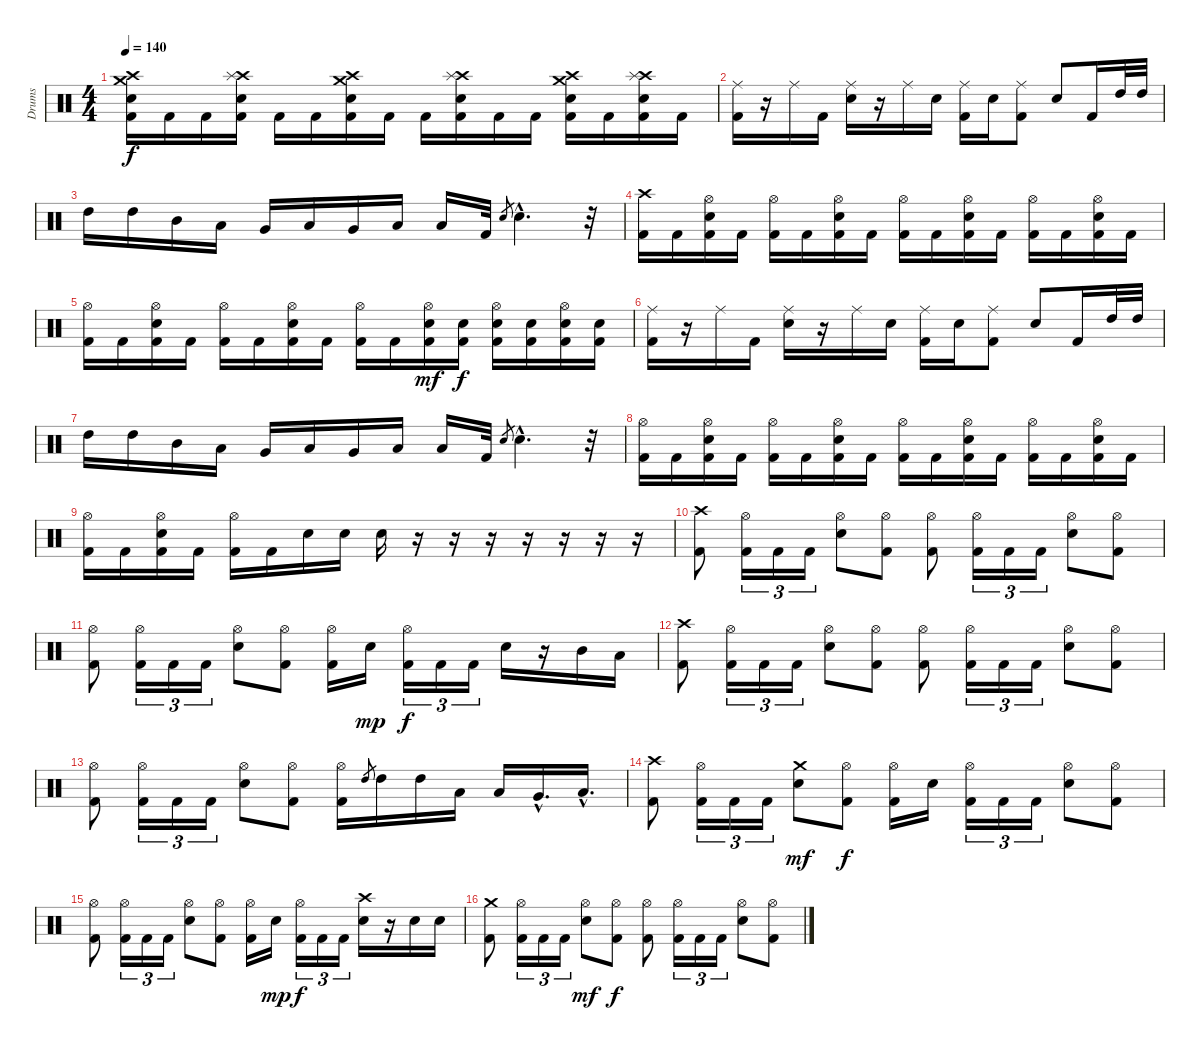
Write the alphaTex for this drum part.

\track ("Drums" "Drums") {instrument percussion}
\staff {score}
\articulation defaults
\ts (4 4)
\tempo 140
\clef neutral
\ks c
("Crash high (hit)" "Crash medium (hit)" "Electric Snare (hit)" "Kick (hit) 2").16{dy f} "Kick (hit) 2".16 "Kick (hit) 2".16 ("Crash high (hit)" "Splash (hit)" "Electric Snare (hit)" "Kick (hit) 2").16 "Kick (hit) 2".16 "Kick (hit) 2".16 ("Crash high (hit)" "Crash medium (hit)" "Electric Snare (hit)" "Kick (hit) 2").16 "Kick (hit) 2".16 "Kick (hit) 2".16 ("Crash high (hit)" "Splash (hit)" "Electric Snare (hit)" "Kick (hit) 2").16 "Kick (hit) 2".16 "Kick (hit) 2".16 ("Crash high (hit)" "Crash medium (hit)" "Electric Snare (hit)" "Kick (hit) 2").16 "Kick (hit) 2".16 ("Crash high (hit)" "Splash (hit)" "Electric Snare (hit)" "Kick (hit) 2").16 "Kick (hit) 2".16 |
("Ride (middle)" "Kick (hit) 2").16 r.16 "Ride (middle)".16 "Kick (hit) 2".16 ("Ride (middle)" "Electric Snare (hit)").16 r.16 "Ride (middle)".16 "Electric Snare (hit)".16 ("Ride (middle)" "Kick (hit) 2").16 "Electric Snare (hit)".16 ("Ride (middle)" "Kick (hit) 2").8 "Electric Snare (hit)".8 "Kick (hit) 2".16 "High Tom (hit)".32 "High Tom (hit)".32 |
"High Tom (hit)".16 "High Tom (hit)".16 "Mid Tom (hit)".16 "Low Tom (hit)".16 "Very Low Tom (hit)".16 "Low Tom (hit)".16 "Very Low Tom (hit)".16 "Low Floor Tom (hit)".16 "Low Floor Tom (hit)".16 "Kick (hit) 2".32 "Electric Snare (hit)".8{gr} "Electric Snare (hit)"{hac}.4{d} r.32 |
("Crash high (hit)" "Kick (hit) 2").16 "Kick (hit) 2".16 ("Hi-Hat (open)" "Electric Snare (hit)" "Kick (hit) 2").16 "Kick (hit) 2".16 ("Hi-Hat (open)" "Kick (hit) 2").16 "Kick (hit) 2".16 ("Hi-Hat (open)" "Electric Snare (hit)" "Kick (hit) 2").16 "Kick (hit) 2".16 ("Hi-Hat (open)" "Kick (hit) 2").16 "Kick (hit) 2".16 ("Hi-Hat (open)" "Electric Snare (hit)" "Kick (hit) 2").16 "Kick (hit) 2".16 ("Hi-Hat (open)" "Kick (hit) 2").16 "Kick (hit) 2".16 ("Hi-Hat (open)" "Electric Snare (hit)" "Kick (hit) 2").16 "Kick (hit) 2".16 |
("Hi-Hat (open)" "Kick (hit) 2").16 "Kick (hit) 2".16 ("Hi-Hat (open)" "Electric Snare (hit)" "Kick (hit) 2").16 "Kick (hit) 2".16 ("Hi-Hat (open)" "Kick (hit) 2").16 "Kick (hit) 2".16 ("Hi-Hat (open)" "Electric Snare (hit)" "Kick (hit) 2").16 "Kick (hit) 2".16 ("Hi-Hat (open)" "Kick (hit) 2").16 "Kick (hit) 2".16 ("Hi-Hat (open)" "Electric Snare (hit)" "Kick (hit) 2").16{dy mf} ("Electric Snare (hit)" "Kick (hit) 2").16{dy f} ("Hi-Hat (open)" "Electric Snare (hit)" "Kick (hit) 2").16 ("Electric Snare (hit)" "Kick (hit) 2").16 ("Hi-Hat (open)" "Electric Snare (hit)" "Kick (hit) 2").16 ("Electric Snare (hit)" "Kick (hit) 2").16 |
("Ride (middle)" "Kick (hit) 2").16 r.16 "Ride (middle)".16 "Kick (hit) 2".16 ("Ride (middle)" "Electric Snare (hit)").16 r.16 "Ride (middle)".16 "Electric Snare (hit)".16 ("Ride (middle)" "Kick (hit) 2").16 "Electric Snare (hit)".16 ("Ride (middle)" "Kick (hit) 2").8 "Electric Snare (hit)".8 "Kick (hit) 2".16 "High Tom (hit)".32 "High Tom (hit)".32 |
"High Tom (hit)".16 "High Tom (hit)".16 "Mid Tom (hit)".16 "Low Tom (hit)".16 "Very Low Tom (hit)".16 "Low Tom (hit)".16 "Very Low Tom (hit)".16 "Low Floor Tom (hit)".16 "Low Floor Tom (hit)".16 "Kick (hit) 2".32 "Electric Snare (hit)".8{gr} "Electric Snare (hit)"{hac}.4{d} r.32 |
("Hi-Hat (open)" "Kick (hit) 2").16 "Kick (hit) 2".16 ("Hi-Hat (open)" "Electric Snare (hit)" "Kick (hit) 2").16 "Kick (hit) 2".16 ("Hi-Hat (open)" "Kick (hit) 2").16 "Kick (hit) 2".16 ("Hi-Hat (open)" "Electric Snare (hit)" "Kick (hit) 2").16 "Kick (hit) 2".16 ("Hi-Hat (open)" "Kick (hit) 2").16 "Kick (hit) 2".16 ("Hi-Hat (open)" "Electric Snare (hit)" "Kick (hit) 2").16 "Kick (hit) 2".16 ("Hi-Hat (open)" "Kick (hit) 2").16 "Kick (hit) 2".16 ("Hi-Hat (open)" "Electric Snare (hit)" "Kick (hit) 2").16 "Kick (hit) 2".16 |
("Hi-Hat (open)" "Kick (hit) 2").16 "Kick (hit) 2".16 ("Hi-Hat (open)" "Electric Snare (hit)" "Kick (hit) 2").16 "Kick (hit) 2".16 ("Hi-Hat (open)" "Kick (hit) 2").16 "Kick (hit) 2".16 "Electric Snare (hit)".16 "Electric Snare (hit)".16 "Electric Snare (hit)".16 r.16 r.16 r.16 r.16 r.16 r.16 r.16 |
("Crash high (hit)" "Kick (hit) 2").8 ("Hi-Hat (open)" "Kick (hit) 2").16{tu (3 2)} "Kick (hit) 2".16{tu (3 2)} "Kick (hit) 2".16{tu (3 2)} ("Hi-Hat (open)" "Electric Snare (hit)").8 ("Hi-Hat (open)" "Kick (hit) 2").8 ("Hi-Hat (open)" "Kick (hit) 2").8 ("Hi-Hat (open)" "Kick (hit) 2").16{tu (3 2)} "Kick (hit) 2".16{tu (3 2)} "Kick (hit) 2".16{tu (3 2)} ("Hi-Hat (open)" "Electric Snare (hit)").8 ("Hi-Hat (open)" "Kick (hit) 2").8 |
("Hi-Hat (open)" "Kick (hit) 2").8 ("Hi-Hat (open)" "Kick (hit) 2").16{tu (3 2)} "Kick (hit) 2".16{tu (3 2)} "Kick (hit) 2".16{tu (3 2)} ("Hi-Hat (open)" "Electric Snare (hit)").8 ("Hi-Hat (open)" "Kick (hit) 2").8 ("Hi-Hat (open)" "Kick (hit) 2").16 "Electric Snare (hit)".16{dy mp} ("Hi-Hat (open)" "Kick (hit) 2").16{tu (3 2) dy f} "Kick (hit) 2".16{tu (3 2)} "Kick (hit) 2".16{tu (3 2)} "Electric Snare (hit)".16 r.16 "Mid Tom (hit)".16 "Low Tom (hit)".16 |
("Crash high (hit)" "Kick (hit) 2").8 ("Hi-Hat (open)" "Kick (hit) 2").16{tu (3 2)} "Kick (hit) 2".16{tu (3 2)} "Kick (hit) 2".16{tu (3 2)} ("Hi-Hat (open)" "Electric Snare (hit)").8 ("Hi-Hat (open)" "Kick (hit) 2").8 ("Hi-Hat (open)" "Kick (hit) 2").8 ("Hi-Hat (open)" "Kick (hit) 2").16{tu (3 2)} "Kick (hit) 2".16{tu (3 2)} "Kick (hit) 2".16{tu (3 2)} ("Hi-Hat (open)" "Electric Snare (hit)").8 ("Hi-Hat (open)" "Kick (hit) 2").8 |
("Hi-Hat (open)" "Kick (hit) 2").8 ("Hi-Hat (open)" "Kick (hit) 2").16{tu (3 2)} "Kick (hit) 2".16{tu (3 2)} "Kick (hit) 2".16{tu (3 2)} ("Hi-Hat (open)" "Electric Snare (hit)").8 ("Hi-Hat (open)" "Kick (hit) 2").8 ("Hi-Hat (open)" "Kick (hit) 2").16 "High Tom (hit)".8{gr} "High Tom (hit)".16 "High Tom (hit)".16 "Low Tom (hit)".16 "Low Tom (hit)".16 "Very Low Tom (hit)"{hac}.16{d} "Low Floor Tom (hit)"{hac}.16{d} |
("Crash high (hit)" "Kick (hit) 2").8 ("Hi-Hat (open)" "Kick (hit) 2").16{tu (3 2)} "Kick (hit) 2".16{tu (3 2)} "Kick (hit) 2".16{tu (3 2)} ("Crash medium (hit)" "Electric Snare (hit)").8{dy mf} ("Hi-Hat (open)" "Kick (hit) 2").8{dy f} ("Hi-Hat (open)" "Kick (hit) 2").16 "Electric Snare (hit)".16 ("Hi-Hat (open)" "Kick (hit) 2").16{tu (3 2)} "Kick (hit) 2".16{tu (3 2)} "Kick (hit) 2".16{tu (3 2)} ("Hi-Hat (open)" "Electric Snare (hit)").8 ("Hi-Hat (open)" "Kick (hit) 2").8 |
("Hi-Hat (open)" "Kick (hit) 2").8 ("Hi-Hat (open)" "Kick (hit) 2").16{tu (3 2)} "Kick (hit) 2".16{tu (3 2)} "Kick (hit) 2".16{tu (3 2)} ("Hi-Hat (open)" "Electric Snare (hit)").8 ("Hi-Hat (open)" "Kick (hit) 2").8 ("Hi-Hat (open)" "Kick (hit) 2").16 "Electric Snare (hit)".16{dy mp} ("Hi-Hat (open)" "Kick (hit) 2").16{tu (3 2) dy f} "Kick (hit) 2".16{tu (3 2)} "Kick (hit) 2".16{tu (3 2)} ("Crash high (hit)" "Electric Snare (hit)").16 r.16 "Electric Snare (hit)".16 "Electric Snare (hit)".16 |
("Crash medium (hit)" "Kick (hit) 2").8 ("Hi-Hat (open)" "Kick (hit) 2").16{tu (3 2)} "Kick (hit) 2".16{tu (3 2)} "Kick (hit) 2".16{tu (3 2)} ("Hi-Hat (open)" "Electric Snare (hit)").8{dy mf} ("Hi-Hat (open)" "Kick (hit) 2").8{dy f} ("Hi-Hat (open)" "Kick (hit) 2").8 ("Hi-Hat (open)" "Kick (hit) 2").16{tu (3 2)} "Kick (hit) 2".16{tu (3 2)} "Kick (hit) 2".16{tu (3 2)} ("Hi-Hat (open)" "Electric Snare (hit)").8 ("Hi-Hat (open)" "Kick (hit) 2").8
